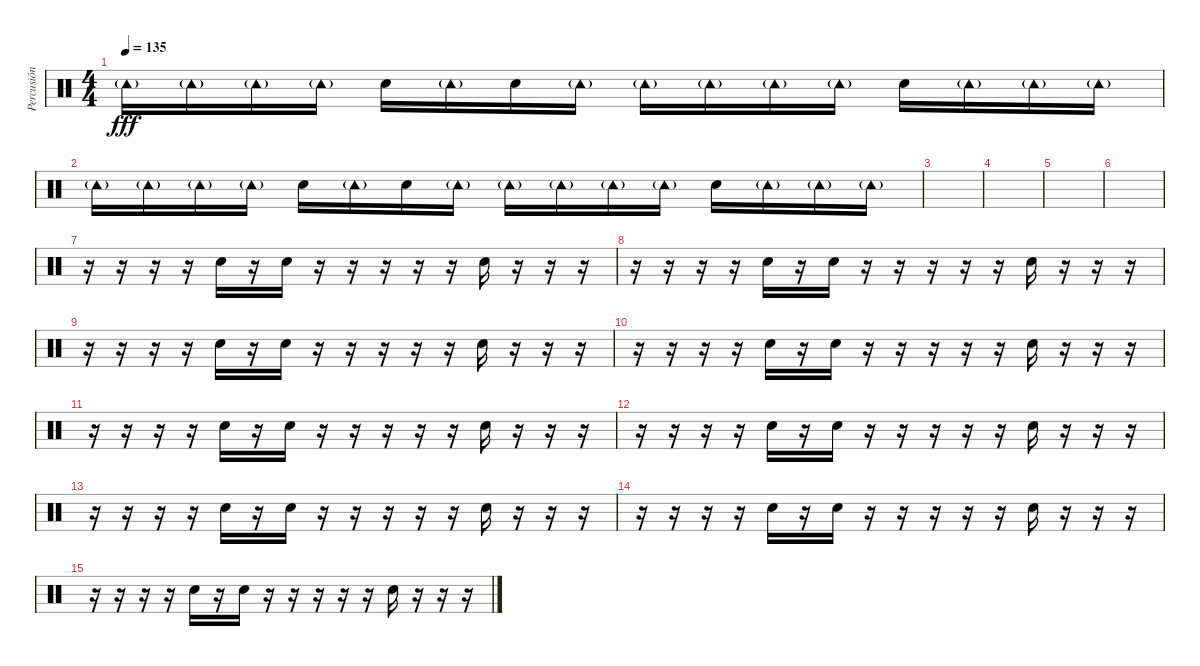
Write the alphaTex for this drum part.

\track ("Percusión" "Percusión") {instrument percussion}
\staff {score}
\articulation defaults
\ts (4 4)
\tempo 135
\clef neutral
\ks c "Tambourine (hit)"{g}.16{dy fff} "Tambourine (hit)"{g}.16 "Tambourine (hit)"{g}.16 "Tambourine (hit)"{g}.16 "Hand Clap (hit)".16 "Tambourine (hit)"{g}.16 "Hand Clap (hit)".16 "Tambourine (hit)"{g}.16 "Tambourine (hit)"{g}.16 "Tambourine (hit)"{g}.16 "Tambourine (hit)"{g}.16 "Tambourine (hit)"{g}.16 "Hand Clap (hit)".16 "Tambourine (hit)"{g}.16 "Tambourine (hit)"{g}.16 "Tambourine (hit)"{g}.16
|
"Tambourine (hit)"{g}.16 "Tambourine (hit)"{g}.16 "Tambourine (hit)"{g}.16 "Tambourine (hit)"{g}.16 "Hand Clap (hit)".16 "Tambourine (hit)"{g}.16 "Hand Clap (hit)".16 "Tambourine (hit)"{g}.16 "Tambourine (hit)"{g}.16 "Tambourine (hit)"{g}.16 "Tambourine (hit)"{g}.16 "Tambourine (hit)"{g}.16 "Hand Clap (hit)".16 "Tambourine (hit)"{g}.16 "Tambourine (hit)"{g}.16 "Tambourine (hit)"{g}.16 |
|
|
|
|
r.16 r.16 r.16 r.16 "Hand Clap (hit)".16 r.16 "Hand Clap (hit)".16 r.16 r.16 r.16 r.16 r.16 "Hand Clap (hit)".16 r.16 r.16 r.16 |
r.16 r.16 r.16 r.16 "Hand Clap (hit)".16 r.16 "Hand Clap (hit)".16 r.16 r.16 r.16 r.16 r.16 "Hand Clap (hit)".16 r.16 r.16 r.16 |
r.16 r.16 r.16 r.16 "Hand Clap (hit)".16 r.16 "Hand Clap (hit)".16 r.16 r.16 r.16 r.16 r.16 "Hand Clap (hit)".16 r.16 r.16 r.16 |
r.16 r.16 r.16 r.16 "Hand Clap (hit)".16 r.16 "Hand Clap (hit)".16 r.16 r.16 r.16 r.16 r.16 "Hand Clap (hit)".16 r.16 r.16 r.16 |
r.16 r.16 r.16 r.16 "Hand Clap (hit)".16 r.16 "Hand Clap (hit)".16 r.16 r.16 r.16 r.16 r.16 "Hand Clap (hit)".16 r.16 r.16 r.16 |
r.16 r.16 r.16 r.16 "Hand Clap (hit)".16 r.16 "Hand Clap (hit)".16 r.16 r.16 r.16 r.16 r.16 "Hand Clap (hit)".16 r.16 r.16 r.16 |
r.16 r.16 r.16 r.16 "Hand Clap (hit)".16 r.16 "Hand Clap (hit)".16 r.16 r.16 r.16 r.16 r.16 "Hand Clap (hit)".16 r.16 r.16 r.16 |
r.16 r.16 r.16 r.16 "Hand Clap (hit)".16 r.16 "Hand Clap (hit)".16 r.16 r.16 r.16 r.16 r.16 "Hand Clap (hit)".16 r.16 r.16 r.16 |
r.16 r.16 r.16 r.16 "Hand Clap (hit)".16 r.16 "Hand Clap (hit)".16 r.16 r.16 r.16 r.16 r.16 "Hand Clap (hit)".16 r.16 r.16 r.16
